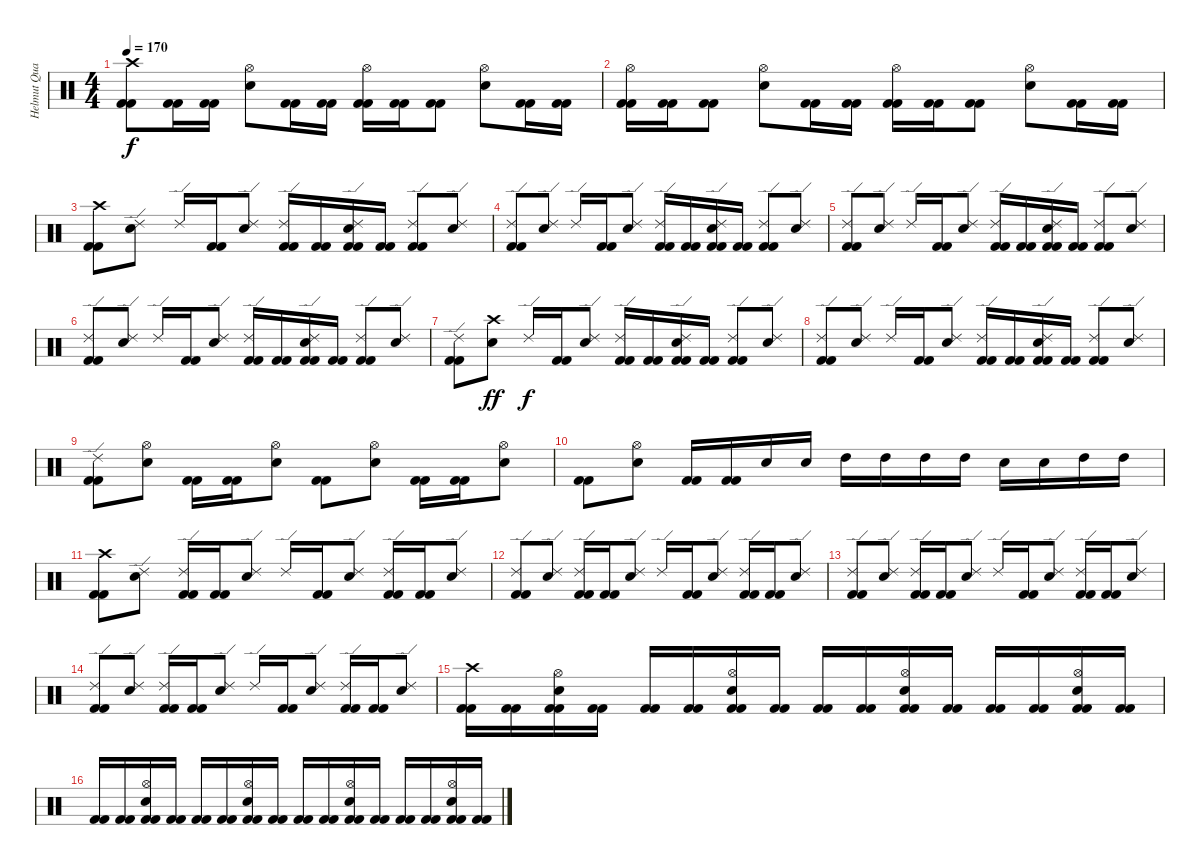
\track ("Helmut Quacken" "Helmut Qua") {instrument percussion}
\staff {score}
\articulation defaults
\ts (4 4)
\tempo 170
\clef neutral
\ks c
("Crash high (hit)" "Kick (hit) 2" "Kick (hit) 2").8{dy f} ("Kick (hit) 2" "Kick (hit) 2").16 ("Kick (hit) 2" "Kick (hit) 2").16 ("Hi-Hat (open)" "Electric Snare (hit)").8 ("Kick (hit) 2" "Kick (hit) 2").16 ("Kick (hit) 2" "Kick (hit) 2").16 ("Hi-Hat (open)" "Kick (hit) 2" "Kick (hit) 2").16 ("Kick (hit) 2" "Kick (hit) 2").16 ("Kick (hit) 2" "Kick (hit) 2").8 ("Hi-Hat (open)" "Electric Snare (hit)").8 ("Kick (hit) 2" "Kick (hit) 2").16 ("Kick (hit) 2" "Kick (hit) 2").16 |
("Hi-Hat (open)" "Kick (hit) 2" "Kick (hit) 2").16 ("Kick (hit) 2" "Kick (hit) 2").16 ("Kick (hit) 2" "Kick (hit) 2").8 ("Hi-Hat (open)" "Electric Snare (hit)").8 ("Kick (hit) 2" "Kick (hit) 2").16 ("Kick (hit) 2" "Kick (hit) 2").16 ("Hi-Hat (open)" "Kick (hit) 2" "Kick (hit) 2").16 ("Kick (hit) 2" "Kick (hit) 2").16 ("Kick (hit) 2" "Kick (hit) 2").8 ("Hi-Hat (open)" "Electric Snare (hit)").8 ("Kick (hit) 2" "Kick (hit) 2").16 ("Kick (hit) 2" "Kick (hit) 2").16 |
("Crash high (hit)" "Kick (hit) 2" "Kick (hit) 2").8 ("Ride (edge) 2" "Electric Snare (hit)").8 "Ride (edge) 2".16 ("Kick (hit) 2" "Kick (hit) 2").16 ("Ride (edge) 2" "Electric Snare (hit)").8 ("Ride (edge) 2" "Kick (hit) 2" "Kick (hit) 2").16 ("Kick (hit) 2" "Kick (hit) 2").16 ("Ride (edge) 2" "Electric Snare (hit)" "Kick (hit) 2" "Kick (hit) 2").16 ("Kick (hit) 2" "Kick (hit) 2").16 ("Ride (edge) 2" "Kick (hit) 2" "Kick (hit) 2").8 ("Ride (edge) 2" "Electric Snare (hit)").8 |
("Ride (edge) 2" "Kick (hit) 2" "Kick (hit) 2").8 ("Ride (edge) 2" "Electric Snare (hit)").8 "Ride (edge) 2".16 ("Kick (hit) 2" "Kick (hit) 2").16 ("Ride (edge) 2" "Electric Snare (hit)").8 ("Ride (edge) 2" "Kick (hit) 2" "Kick (hit) 2").16 ("Kick (hit) 2" "Kick (hit) 2").16 ("Ride (edge) 2" "Electric Snare (hit)" "Kick (hit) 2" "Kick (hit) 2").16 ("Kick (hit) 2" "Kick (hit) 2").16 ("Ride (edge) 2" "Kick (hit) 2" "Kick (hit) 2").8 ("Ride (edge) 2" "Electric Snare (hit)").8 |
("Ride (edge) 2" "Kick (hit) 2" "Kick (hit) 2").8 ("Ride (edge) 2" "Electric Snare (hit)").8 "Ride (edge) 2".16 ("Kick (hit) 2" "Kick (hit) 2").16 ("Ride (edge) 2" "Electric Snare (hit)").8 ("Ride (edge) 2" "Kick (hit) 2" "Kick (hit) 2").16 ("Kick (hit) 2" "Kick (hit) 2").16 ("Ride (edge) 2" "Electric Snare (hit)" "Kick (hit) 2" "Kick (hit) 2").16 ("Kick (hit) 2" "Kick (hit) 2").16 ("Ride (edge) 2" "Kick (hit) 2" "Kick (hit) 2").8 ("Ride (edge) 2" "Electric Snare (hit)").8 |
("Ride (edge) 2" "Kick (hit) 2" "Kick (hit) 2").8 ("Ride (edge) 2" "Electric Snare (hit)").8 "Ride (edge) 2".16 ("Kick (hit) 2" "Kick (hit) 2").16 ("Ride (edge) 2" "Electric Snare (hit)").8 ("Ride (edge) 2" "Kick (hit) 2" "Kick (hit) 2").16 ("Kick (hit) 2" "Kick (hit) 2").16 ("Ride (edge) 2" "Electric Snare (hit)" "Kick (hit) 2" "Kick (hit) 2").16 ("Kick (hit) 2" "Kick (hit) 2").16 ("Ride (edge) 2" "Kick (hit) 2" "Kick (hit) 2").8 ("Ride (edge) 2" "Electric Snare (hit)").8 |
("Ride (edge) 2" "Kick (hit) 2" "Kick (hit) 2").8 ("Crash high (hit)" "Electric Snare (hit)").8{dy ff} "Ride (edge) 2".16{dy f} ("Kick (hit) 2" "Kick (hit) 2").16 ("Ride (edge) 2" "Electric Snare (hit)").8 ("Ride (edge) 2" "Kick (hit) 2" "Kick (hit) 2").16 ("Kick (hit) 2" "Kick (hit) 2").16 ("Ride (edge) 2" "Electric Snare (hit)" "Kick (hit) 2" "Kick (hit) 2").16 ("Kick (hit) 2" "Kick (hit) 2").16 ("Ride (edge) 2" "Kick (hit) 2" "Kick (hit) 2").8 ("Ride (edge) 2" "Electric Snare (hit)").8 |
("Ride (edge) 2" "Kick (hit) 2" "Kick (hit) 2").8 ("Ride (edge) 2" "Electric Snare (hit)").8 "Ride (edge) 2".16 ("Kick (hit) 2" "Kick (hit) 2").16 ("Ride (edge) 2" "Electric Snare (hit)").8 ("Ride (edge) 2" "Kick (hit) 2" "Kick (hit) 2").16 ("Kick (hit) 2" "Kick (hit) 2").16 ("Ride (edge) 2" "Electric Snare (hit)" "Kick (hit) 2" "Kick (hit) 2").16 ("Kick (hit) 2" "Kick (hit) 2").16 ("Ride (edge) 2" "Kick (hit) 2" "Kick (hit) 2").8 ("Ride (edge) 2" "Electric Snare (hit)").8 |
("Ride (edge) 2" "Kick (hit) 2" "Kick (hit) 2").8 ("Hi-Hat (open)" "Electric Snare (hit)").8 ("Kick (hit) 2" "Kick (hit) 2").16 ("Kick (hit) 2" "Kick (hit) 2").16 ("Hi-Hat (open)" "Electric Snare (hit)").8 ("Kick (hit) 2" "Kick (hit) 2").8 ("Hi-Hat (open)" "Electric Snare (hit)").8 ("Kick (hit) 2" "Kick (hit) 2").16 ("Kick (hit) 2" "Kick (hit) 2").16 ("Hi-Hat (open)" "Electric Snare (hit)").8 |
("Kick (hit) 2" "Kick (hit) 2").8 ("Hi-Hat (open)" "Electric Snare (hit)").8 ("Kick (hit) 2" "Kick (hit) 2").16 ("Kick (hit) 2" "Kick (hit) 2").16 "Electric Snare (hit)".16 "Electric Snare (hit)".16 "High Tom (hit)".16 "High Tom (hit)".16 "High Tom (hit)".16 "High Tom (hit)".16 "Electric Snare (hit)".16 "Electric Snare (hit)".16 "High Tom (hit)".16 "High Tom (hit)".16 |
("Crash high (hit)" "Kick (hit) 2" "Kick (hit) 2").8 ("Ride (edge) 2" "Electric Snare (hit)").8 ("Ride (edge) 2" "Kick (hit) 2" "Kick (hit) 2").16 ("Kick (hit) 2" "Kick (hit) 2").16 ("Ride (edge) 2" "Electric Snare (hit)").8 "Ride (edge) 2".16 ("Kick (hit) 2" "Kick (hit) 2").16 ("Ride (edge) 2" "Electric Snare (hit)").8 ("Ride (edge) 2" "Kick (hit) 2" "Kick (hit) 2").16 ("Kick (hit) 2" "Kick (hit) 2").16 ("Ride (edge) 2" "Electric Snare (hit)").8 |
("Ride (edge) 2" "Kick (hit) 2" "Kick (hit) 2").8 ("Ride (edge) 2" "Electric Snare (hit)").8 ("Ride (edge) 2" "Kick (hit) 2" "Kick (hit) 2").16 ("Kick (hit) 2" "Kick (hit) 2").16 ("Ride (edge) 2" "Electric Snare (hit)").8 "Ride (edge) 2".16 ("Kick (hit) 2" "Kick (hit) 2").16 ("Ride (edge) 2" "Electric Snare (hit)").8 ("Ride (edge) 2" "Kick (hit) 2" "Kick (hit) 2").16 ("Kick (hit) 2" "Kick (hit) 2").16 ("Ride (edge) 2" "Electric Snare (hit)").8 |
("Ride (edge) 2" "Kick (hit) 2" "Kick (hit) 2").8 ("Ride (edge) 2" "Electric Snare (hit)").8 ("Ride (edge) 2" "Kick (hit) 2" "Kick (hit) 2").16 ("Kick (hit) 2" "Kick (hit) 2").16 ("Ride (edge) 2" "Electric Snare (hit)").8 "Ride (edge) 2".16 ("Kick (hit) 2" "Kick (hit) 2").16 ("Ride (edge) 2" "Electric Snare (hit)").8 ("Ride (edge) 2" "Kick (hit) 2" "Kick (hit) 2").16 ("Kick (hit) 2" "Kick (hit) 2").16 ("Ride (edge) 2" "Electric Snare (hit)").8 |
("Ride (edge) 2" "Kick (hit) 2" "Kick (hit) 2").8 ("Ride (edge) 2" "Electric Snare (hit)").8 ("Ride (edge) 2" "Kick (hit) 2" "Kick (hit) 2").16 ("Kick (hit) 2" "Kick (hit) 2").16 ("Ride (edge) 2" "Electric Snare (hit)").8 "Ride (edge) 2".16 ("Kick (hit) 2" "Kick (hit) 2").16 ("Ride (edge) 2" "Electric Snare (hit)").8 ("Ride (edge) 2" "Kick (hit) 2" "Kick (hit) 2").16 ("Kick (hit) 2" "Kick (hit) 2").16 ("Ride (edge) 2" "Electric Snare (hit)").8 |
("Crash high (hit)" "Kick (hit) 2" "Kick (hit) 2").16 ("Kick (hit) 2" "Kick (hit) 2").16 ("Hi-Hat (open)" "Electric Snare (hit)" "Kick (hit) 2" "Kick (hit) 2").16 ("Kick (hit) 2" "Kick (hit) 2").16 ("Kick (hit) 2" "Kick (hit) 2").16 ("Kick (hit) 2" "Kick (hit) 2").16 ("Hi-Hat (open)" "Electric Snare (hit)" "Kick (hit) 2" "Kick (hit) 2").16 ("Kick (hit) 2" "Kick (hit) 2").16 ("Kick (hit) 2" "Kick (hit) 2").16 ("Kick (hit) 2" "Kick (hit) 2").16 ("Hi-Hat (open)" "Electric Snare (hit)" "Kick (hit) 2" "Kick (hit) 2").16 ("Kick (hit) 2" "Kick (hit) 2").16 ("Kick (hit) 2" "Kick (hit) 2").16 ("Kick (hit) 2" "Kick (hit) 2").16 ("Hi-Hat (open)" "Electric Snare (hit)" "Kick (hit) 2" "Kick (hit) 2").16 ("Kick (hit) 2" "Kick (hit) 2").16 |
("Kick (hit) 2" "Kick (hit) 2").16 ("Kick (hit) 2" "Kick (hit) 2").16 ("Hi-Hat (open)" "Electric Snare (hit)" "Kick (hit) 2" "Kick (hit) 2").16 ("Kick (hit) 2" "Kick (hit) 2").16 ("Kick (hit) 2" "Kick (hit) 2").16 ("Kick (hit) 2" "Kick (hit) 2").16 ("Hi-Hat (open)" "Electric Snare (hit)" "Kick (hit) 2" "Kick (hit) 2").16 ("Kick (hit) 2" "Kick (hit) 2").16 ("Kick (hit) 2" "Kick (hit) 2").16 ("Kick (hit) 2" "Kick (hit) 2").16 ("Hi-Hat (open)" "Electric Snare (hit)" "Kick (hit) 2" "Kick (hit) 2").16 ("Kick (hit) 2" "Kick (hit) 2").16 ("Kick (hit) 2" "Kick (hit) 2").16 ("Kick (hit) 2" "Kick (hit) 2").16 ("Hi-Hat (open)" "Electric Snare (hit)" "Kick (hit) 2" "Kick (hit) 2").16 ("Kick (hit) 2" "Kick (hit) 2").16
